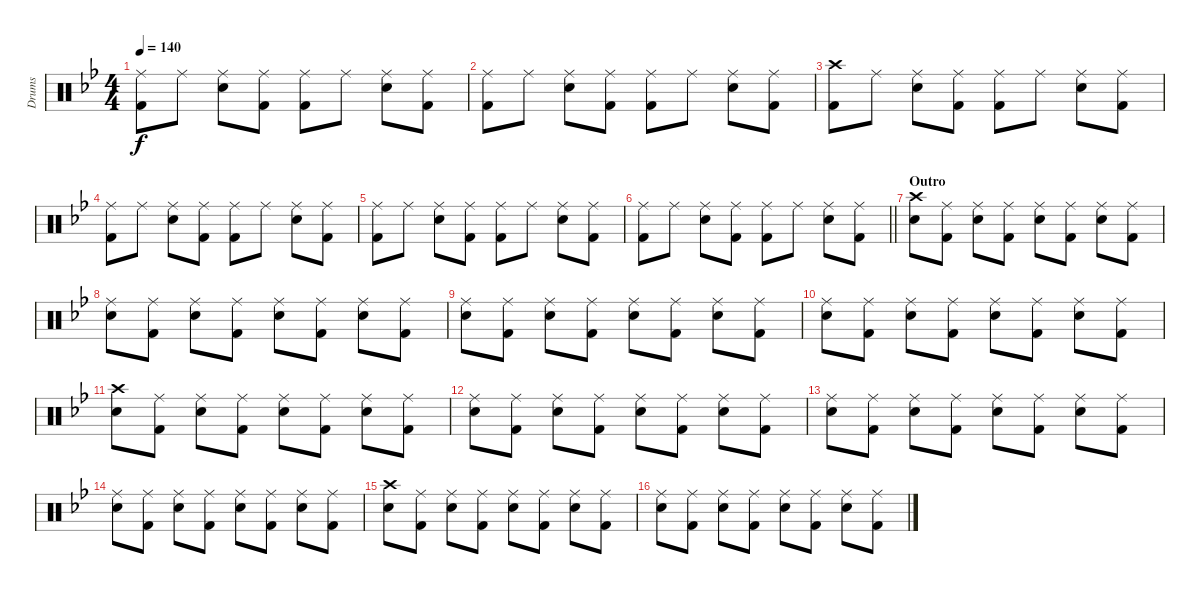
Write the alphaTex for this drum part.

\track ("Drums" "Drums") {instrument percussion}
\staff {score}
\articulation defaults
\ts (4 4)
\tempo 140
\clef neutral
\ks bb
("Ride (middle)" "Kick (hit) 2").8{dy f} "Ride (middle)".8 ("Ride (middle)" "Snare (hit) 2").8 ("Ride (middle)" "Kick (hit) 2").8 ("Ride (middle)" "Kick (hit) 2").8 "Ride (middle)".8 ("Ride (middle)" "Snare (hit) 2").8 ("Ride (middle)" "Kick (hit) 2").8 |
("Ride (middle)" "Kick (hit) 2").8 "Ride (middle)".8 ("Ride (middle)" "Snare (hit) 2").8 ("Ride (middle)" "Kick (hit) 2").8 ("Ride (middle)" "Kick (hit) 2").8 "Ride (middle)".8 ("Ride (middle)" "Snare (hit) 2").8 ("Ride (middle)" "Kick (hit) 2").8 |
("Crash high (hit)" "Kick (hit) 2").8 "Ride (middle)".8 ("Ride (middle)" "Snare (hit) 2").8 ("Ride (middle)" "Kick (hit) 2").8 ("Ride (middle)" "Kick (hit) 2").8 "Ride (middle)".8 ("Ride (middle)" "Snare (hit) 2").8 ("Ride (middle)" "Kick (hit) 2").8 |
("Ride (middle)" "Kick (hit) 2").8 "Ride (middle)".8 ("Ride (middle)" "Snare (hit) 2").8 ("Ride (middle)" "Kick (hit) 2").8 ("Ride (middle)" "Kick (hit) 2").8 "Ride (middle)".8 ("Ride (middle)" "Snare (hit) 2").8 ("Ride (middle)" "Kick (hit) 2").8 |
("Ride (middle)" "Kick (hit) 2").8 "Ride (middle)".8 ("Ride (middle)" "Snare (hit) 2").8 ("Ride (middle)" "Kick (hit) 2").8 ("Ride (middle)" "Kick (hit) 2").8 "Ride (middle)".8 ("Ride (middle)" "Snare (hit) 2").8 ("Ride (middle)" "Kick (hit) 2").8 |
\barLineRight lightlight
("Ride (middle)" "Kick (hit) 2").8 "Ride (middle)".8 ("Ride (middle)" "Snare (hit) 2").8 ("Ride (middle)" "Kick (hit) 2").8 ("Ride (middle)" "Kick (hit) 2").8 "Ride (middle)".8 ("Ride (middle)" "Snare (hit) 2").8 ("Ride (middle)" "Kick (hit) 2").8 |
\section ("" "Outro")
("Crash high (hit)" "Snare (hit) 2").8 ("Ride (middle)" "Kick (hit) 2").8 ("Ride (middle)" "Snare (hit) 2").8 ("Ride (middle)" "Kick (hit) 2").8 ("Ride (middle)" "Snare (hit) 2").8 ("Ride (middle)" "Kick (hit) 2").8 ("Ride (middle)" "Snare (hit) 2").8 ("Ride (middle)" "Kick (hit) 2").8 |
("Ride (middle)" "Snare (hit) 2").8 ("Ride (middle)" "Kick (hit) 2").8 ("Ride (middle)" "Snare (hit) 2").8 ("Ride (middle)" "Kick (hit) 2").8 ("Ride (middle)" "Snare (hit) 2").8 ("Ride (middle)" "Kick (hit) 2").8 ("Ride (middle)" "Snare (hit) 2").8 ("Ride (middle)" "Kick (hit) 2").8 |
("Ride (middle)" "Snare (hit) 2").8 ("Ride (middle)" "Kick (hit) 2").8 ("Ride (middle)" "Snare (hit) 2").8 ("Ride (middle)" "Kick (hit) 2").8 ("Ride (middle)" "Snare (hit) 2").8 ("Ride (middle)" "Kick (hit) 2").8 ("Ride (middle)" "Snare (hit) 2").8 ("Ride (middle)" "Kick (hit) 2").8 |
("Ride (middle)" "Snare (hit) 2").8 ("Ride (middle)" "Kick (hit) 2").8 ("Ride (middle)" "Snare (hit) 2").8 ("Ride (middle)" "Kick (hit) 2").8 ("Ride (middle)" "Snare (hit) 2").8 ("Ride (middle)" "Kick (hit) 2").8 ("Ride (middle)" "Snare (hit) 2").8 ("Ride (middle)" "Kick (hit) 2").8 |
("Crash high (hit)" "Snare (hit) 2").8 ("Ride (middle)" "Kick (hit) 2").8 ("Ride (middle)" "Snare (hit) 2").8 ("Ride (middle)" "Kick (hit) 2").8 ("Ride (middle)" "Snare (hit) 2").8 ("Ride (middle)" "Kick (hit) 2").8 ("Ride (middle)" "Snare (hit) 2").8 ("Ride (middle)" "Kick (hit) 2").8 |
("Ride (middle)" "Snare (hit) 2").8 ("Ride (middle)" "Kick (hit) 2").8 ("Ride (middle)" "Snare (hit) 2").8 ("Ride (middle)" "Kick (hit) 2").8 ("Ride (middle)" "Snare (hit) 2").8 ("Ride (middle)" "Kick (hit) 2").8 ("Ride (middle)" "Snare (hit) 2").8 ("Ride (middle)" "Kick (hit) 2").8 |
("Ride (middle)" "Snare (hit) 2").8 ("Ride (middle)" "Kick (hit) 2").8 ("Ride (middle)" "Snare (hit) 2").8 ("Ride (middle)" "Kick (hit) 2").8 ("Ride (middle)" "Snare (hit) 2").8 ("Ride (middle)" "Kick (hit) 2").8 ("Ride (middle)" "Snare (hit) 2").8 ("Ride (middle)" "Kick (hit) 2").8 |
("Ride (middle)" "Snare (hit) 2").8 ("Ride (middle)" "Kick (hit) 2").8 ("Ride (middle)" "Snare (hit) 2").8 ("Ride (middle)" "Kick (hit) 2").8 ("Ride (middle)" "Snare (hit) 2").8 ("Ride (middle)" "Kick (hit) 2").8 ("Ride (middle)" "Snare (hit) 2").8 ("Ride (middle)" "Kick (hit) 2").8 |
("Crash high (hit)" "Snare (hit) 2").8 ("Ride (middle)" "Kick (hit) 2").8 ("Ride (middle)" "Snare (hit) 2").8 ("Ride (middle)" "Kick (hit) 2").8 ("Ride (middle)" "Snare (hit) 2").8 ("Ride (middle)" "Kick (hit) 2").8 ("Ride (middle)" "Snare (hit) 2").8 ("Ride (middle)" "Kick (hit) 2").8 |
("Ride (middle)" "Snare (hit) 2").8 ("Ride (middle)" "Kick (hit) 2").8 ("Ride (middle)" "Snare (hit) 2").8 ("Ride (middle)" "Kick (hit) 2").8 ("Ride (middle)" "Snare (hit) 2").8 ("Ride (middle)" "Kick (hit) 2").8 ("Ride (middle)" "Snare (hit) 2").8 ("Ride (middle)" "Kick (hit) 2").8
